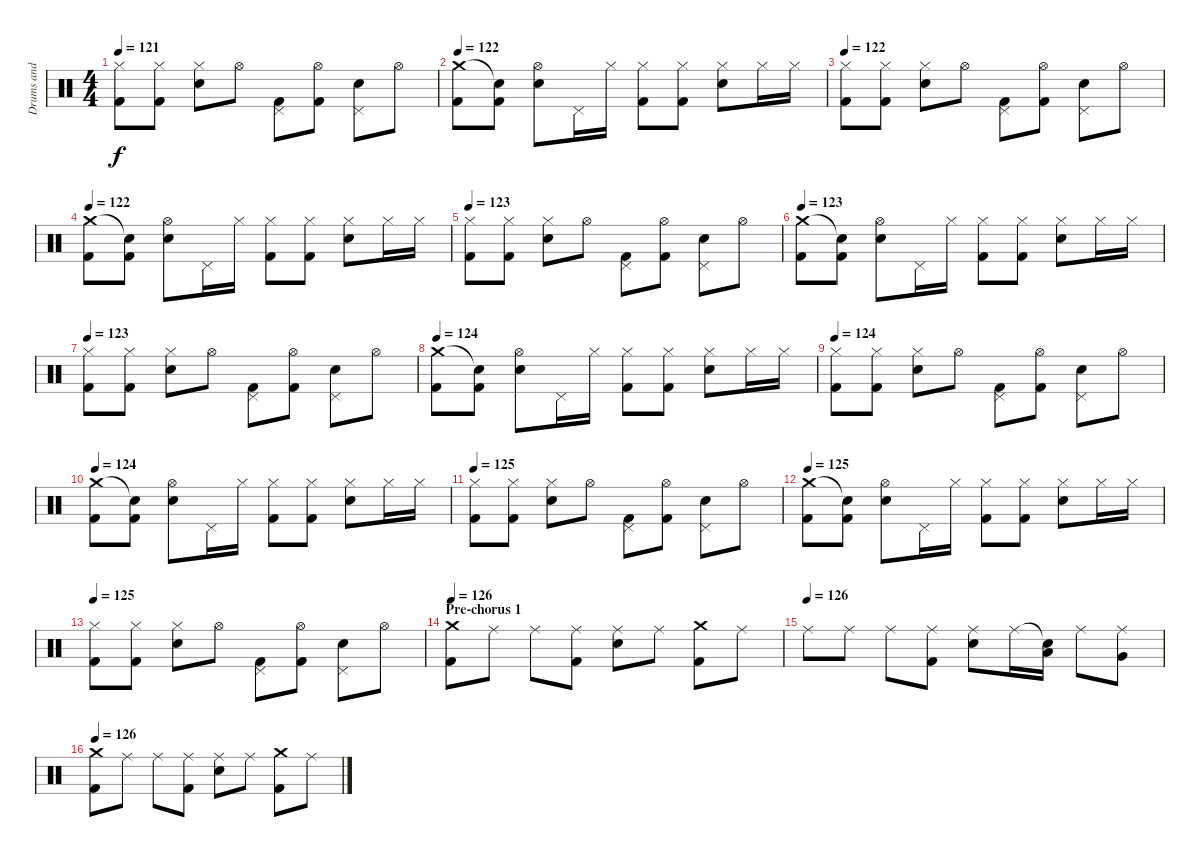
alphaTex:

\track ("Drums and Percussion" "Drums and ") {instrument percussion}
\staff {score}
\articulation defaults
\ts (4 4)
\tempo 121
\clef neutral
\ks c
("Hi-Hat (closed)" "Kick (hit) 2").8{dy f} ("Hi-Hat (closed)" "Kick (hit) 2").8 ("Hi-Hat (closed)" "Electric Snare (hit)").8 "Hi-Hat (open)".8 ("Pedal Hi-Hat (hit)" "Kick (hit) 2").8 ("Hi-Hat (open)" "Kick (hit) 2").8 ("Pedal Hi-Hat (hit)" "Electric Snare (hit)").8 "Hi-Hat (open)".8 |
\tempo 122
("Crash medium (hit)" "Kick (hit) 2").8 ("Snare (hit)"{t} "Kick (hit) 2").8 ("Hi-Hat (open)" "Electric Snare (hit)").8 "Pedal Hi-Hat (hit)".16 "Hi-Hat (closed)".16 ("Hi-Hat (closed)" "Kick (hit) 2").8 ("Hi-Hat (closed)" "Kick (hit) 2").8 ("Hi-Hat (closed)" "Electric Snare (hit)").8 "Hi-Hat (closed)".16 "Hi-Hat (closed)".16 |
\tempo 122
("Hi-Hat (closed)" "Kick (hit) 2").8 ("Hi-Hat (closed)" "Kick (hit) 2").8 ("Hi-Hat (closed)" "Electric Snare (hit)").8 "Hi-Hat (open)".8 ("Pedal Hi-Hat (hit)" "Kick (hit) 2").8 ("Hi-Hat (open)" "Kick (hit) 2").8 ("Pedal Hi-Hat (hit)" "Electric Snare (hit)").8 "Hi-Hat (open)".8 |
\tempo 122
("Crash medium (hit)" "Kick (hit) 2").8 ("Snare (hit)"{t} "Kick (hit) 2").8 ("Hi-Hat (open)" "Electric Snare (hit)").8 "Pedal Hi-Hat (hit)".16 "Hi-Hat (closed)".16 ("Hi-Hat (closed)" "Kick (hit) 2").8 ("Hi-Hat (closed)" "Kick (hit) 2").8 ("Hi-Hat (closed)" "Electric Snare (hit)").8 "Hi-Hat (closed)".16 "Hi-Hat (closed)".16 |
\tempo 123
("Hi-Hat (closed)" "Kick (hit) 2").8 ("Hi-Hat (closed)" "Kick (hit) 2").8 ("Hi-Hat (closed)" "Electric Snare (hit)").8 "Hi-Hat (open)".8 ("Pedal Hi-Hat (hit)" "Kick (hit) 2").8 ("Hi-Hat (open)" "Kick (hit) 2").8 ("Pedal Hi-Hat (hit)" "Electric Snare (hit)").8 "Hi-Hat (open)".8 |
\tempo 123
("Crash medium (hit)" "Kick (hit) 2").8 ("Snare (hit)"{t} "Kick (hit) 2").8 ("Hi-Hat (open)" "Electric Snare (hit)").8 "Pedal Hi-Hat (hit)".16 "Hi-Hat (closed)".16 ("Hi-Hat (closed)" "Kick (hit) 2").8 ("Hi-Hat (closed)" "Kick (hit) 2").8 ("Hi-Hat (closed)" "Electric Snare (hit)").8 "Hi-Hat (closed)".16 "Hi-Hat (closed)".16 |
\tempo 123
("Hi-Hat (closed)" "Kick (hit) 2").8 ("Hi-Hat (closed)" "Kick (hit) 2").8 ("Hi-Hat (closed)" "Electric Snare (hit)").8 "Hi-Hat (open)".8 ("Pedal Hi-Hat (hit)" "Kick (hit) 2").8 ("Hi-Hat (open)" "Kick (hit) 2").8 ("Pedal Hi-Hat (hit)" "Electric Snare (hit)").8 "Hi-Hat (open)".8 |
\tempo 124
("Crash medium (hit)" "Kick (hit) 2").8 ("Snare (hit)"{t} "Kick (hit) 2").8 ("Hi-Hat (open)" "Electric Snare (hit)").8 "Pedal Hi-Hat (hit)".16 "Hi-Hat (closed)".16 ("Hi-Hat (closed)" "Kick (hit) 2").8 ("Hi-Hat (closed)" "Kick (hit) 2").8 ("Hi-Hat (closed)" "Electric Snare (hit)").8 "Hi-Hat (closed)".16 "Hi-Hat (closed)".16 |
\tempo 124
("Hi-Hat (closed)" "Kick (hit) 2").8 ("Hi-Hat (closed)" "Kick (hit) 2").8 ("Hi-Hat (closed)" "Electric Snare (hit)").8 "Hi-Hat (open)".8 ("Pedal Hi-Hat (hit)" "Kick (hit) 2").8 ("Hi-Hat (open)" "Kick (hit) 2").8 ("Pedal Hi-Hat (hit)" "Electric Snare (hit)").8 "Hi-Hat (open)".8 |
\tempo 124
("Crash medium (hit)" "Kick (hit) 2").8 ("Snare (hit)"{t} "Kick (hit) 2").8 ("Hi-Hat (open)" "Electric Snare (hit)").8 "Pedal Hi-Hat (hit)".16 "Hi-Hat (closed)".16 ("Hi-Hat (closed)" "Kick (hit) 2").8 ("Hi-Hat (closed)" "Kick (hit) 2").8 ("Hi-Hat (closed)" "Electric Snare (hit)").8 "Hi-Hat (closed)".16 "Hi-Hat (closed)".16 |
\tempo 125
("Hi-Hat (closed)" "Kick (hit) 2").8 ("Hi-Hat (closed)" "Kick (hit) 2").8 ("Hi-Hat (closed)" "Electric Snare (hit)").8 "Hi-Hat (open)".8 ("Pedal Hi-Hat (hit)" "Kick (hit) 2").8 ("Hi-Hat (open)" "Kick (hit) 2").8 ("Pedal Hi-Hat (hit)" "Electric Snare (hit)").8 "Hi-Hat (open)".8 |
\tempo 125
("Crash medium (hit)" "Kick (hit) 2").8 ("Snare (hit)"{t} "Kick (hit) 2").8 ("Hi-Hat (open)" "Electric Snare (hit)").8 "Pedal Hi-Hat (hit)".16 "Hi-Hat (closed)".16 ("Hi-Hat (closed)" "Kick (hit) 2").8 ("Hi-Hat (closed)" "Kick (hit) 2").8 ("Hi-Hat (closed)" "Electric Snare (hit)").8 "Hi-Hat (closed)".16 "Hi-Hat (closed)".16 |
\tempo 125
("Hi-Hat (closed)" "Kick (hit) 2").8 ("Hi-Hat (closed)" "Kick (hit) 2").8 ("Hi-Hat (closed)" "Electric Snare (hit)").8 "Hi-Hat (open)".8 ("Pedal Hi-Hat (hit)" "Kick (hit) 2").8 ("Hi-Hat (open)" "Kick (hit) 2").8 ("Pedal Hi-Hat (hit)" "Electric Snare (hit)").8 "Hi-Hat (open)".8 |
\section ("" "Pre-chorus 1")
\tempo 126
("Crash medium (hit)" "Kick (hit) 2").8 "Ride (middle)".8 "Ride (middle)".8 ("Ride (middle)" "Kick (hit) 2").8 ("Ride (middle)" "Electric Snare (hit)").8 "Ride (middle)".8 ("Crash medium (hit)" "Kick (hit) 2").8 "Ride (middle)".8 |
\tempo (126)
"Ride (middle)".8 "Ride (middle)".8 "Ride (middle)".8 ("Ride (middle)" "Kick (hit) 2").8 ("Ride (middle)" "Electric Snare (hit)").8 "Ride (middle)".16 ("Snare (hit)"{t} "Low Tom (hit)").16 "Ride (middle)".8 ("Ride (middle)" "Very Low Tom (hit)").8 |
\tempo 126
("Crash medium (hit)" "Kick (hit) 2").8 "Ride (middle)".8 "Ride (middle)".8 ("Ride (middle)" "Kick (hit) 2").8 ("Ride (middle)" "Electric Snare (hit)").8 "Ride (middle)".8 ("Crash medium (hit)" "Kick (hit) 2").8 "Ride (middle)".8
